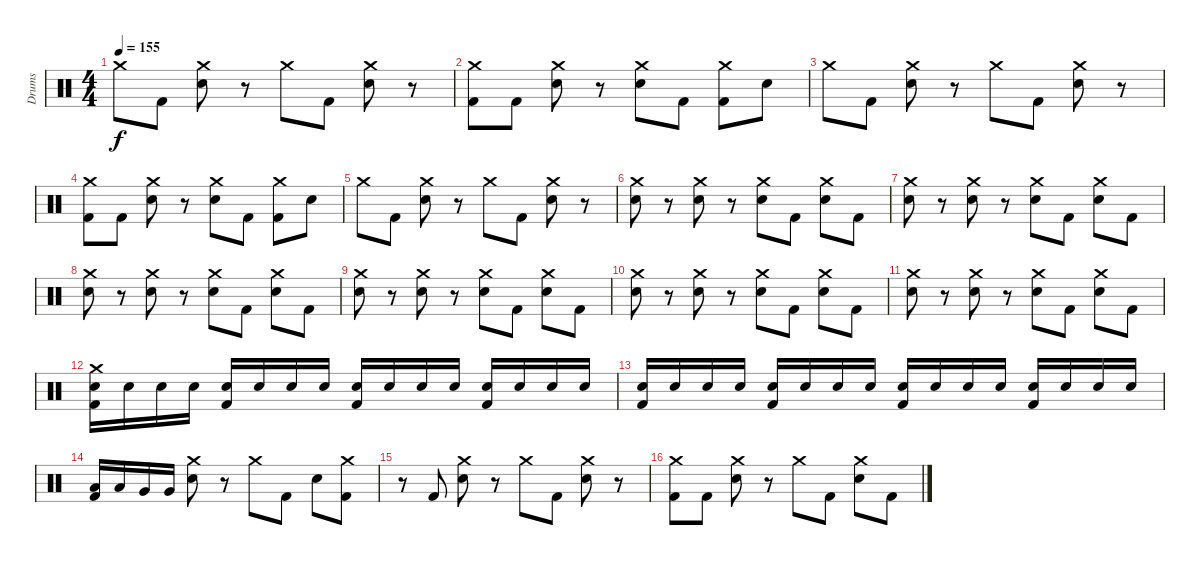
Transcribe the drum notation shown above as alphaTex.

\track ("Drums" "Drums") {instrument percussion}
\staff {score}
\articulation defaults
\ts (4 4)
\tempo 155
\clef neutral
\ks c "Crash medium (hit)".8{dy f} "Kick (hit) 2".8
("Crash medium (hit)" "Electric Snare (hit)").8 r.8 "Crash medium (hit)".8 "Kick (hit) 2".8 ("Crash medium (hit)" "Electric Snare (hit)").8 r.8 |
("Crash medium (hit)" "Kick (hit) 2").8 "Kick (hit) 2".8 ("Crash medium (hit)" "Electric Snare (hit)").8 r.8 ("Crash medium (hit)" "Electric Snare (hit)").8 "Kick (hit) 2".8 ("Crash medium (hit)" "Kick (hit) 2").8 "Electric Snare (hit)".8 |
"Crash medium (hit)".8 "Kick (hit) 2".8 ("Crash medium (hit)" "Electric Snare (hit)").8 r.8 "Crash medium (hit)".8 "Kick (hit) 2".8 ("Crash medium (hit)" "Electric Snare (hit)").8 r.8 |
("Crash medium (hit)" "Kick (hit) 2").8 "Kick (hit) 2".8 ("Crash medium (hit)" "Electric Snare (hit)").8 r.8 ("Crash medium (hit)" "Electric Snare (hit)").8 "Kick (hit) 2".8 ("Crash medium (hit)" "Kick (hit) 2").8 "Electric Snare (hit)".8 |
"Crash medium (hit)".8 "Kick (hit) 2".8 ("Crash medium (hit)" "Electric Snare (hit)").8 r.8 "Crash medium (hit)".8 "Kick (hit) 2".8 ("Crash medium (hit)" "Electric Snare (hit)").8 r.8 |
("Crash medium (hit)" "Electric Snare (hit)").8 r.8 ("Crash medium (hit)" "Electric Snare (hit)").8 r.8 ("Crash medium (hit)" "Electric Snare (hit)").8 "Kick (hit) 2".8 ("Crash medium (hit)" "Electric Snare (hit)").8 "Kick (hit) 2".8 |
("Crash medium (hit)" "Electric Snare (hit)").8 r.8 ("Crash medium (hit)" "Electric Snare (hit)").8 r.8 ("Crash medium (hit)" "Electric Snare (hit)").8 "Kick (hit) 2".8 ("Crash medium (hit)" "Electric Snare (hit)").8 "Kick (hit) 2".8 |
("Crash medium (hit)" "Electric Snare (hit)").8 r.8 ("Crash medium (hit)" "Electric Snare (hit)").8 r.8 ("Crash medium (hit)" "Electric Snare (hit)").8 "Kick (hit) 2".8 ("Crash medium (hit)" "Electric Snare (hit)").8 "Kick (hit) 2".8 |
("Crash medium (hit)" "Electric Snare (hit)").8 r.8 ("Crash medium (hit)" "Electric Snare (hit)").8 r.8 ("Crash medium (hit)" "Electric Snare (hit)").8 "Kick (hit) 2".8 ("Crash medium (hit)" "Electric Snare (hit)").8 "Kick (hit) 2".8 |
("Crash medium (hit)" "Electric Snare (hit)").8 r.8 ("Crash medium (hit)" "Electric Snare (hit)").8 r.8 ("Crash medium (hit)" "Electric Snare (hit)").8 "Kick (hit) 2".8 ("Crash medium (hit)" "Electric Snare (hit)").8 "Kick (hit) 2".8 |
("Crash medium (hit)" "Electric Snare (hit)").8 r.8 ("Crash medium (hit)" "Electric Snare (hit)").8 r.8 ("Crash medium (hit)" "Electric Snare (hit)").8 "Kick (hit) 2".8 ("Crash medium (hit)" "Electric Snare (hit)").8 "Kick (hit) 2".8 |
("Crash medium (hit)" "Electric Snare (hit)" "Kick (hit) 2").16 "Electric Snare (hit)".16 "Electric Snare (hit)".16 "Electric Snare (hit)".16 ("Electric Snare (hit)" "Kick (hit) 2").16 "Electric Snare (hit)".16 "Electric Snare (hit)".16 "Electric Snare (hit)".16 ("Electric Snare (hit)" "Kick (hit) 2").16 "Electric Snare (hit)".16 "Electric Snare (hit)".16 "Electric Snare (hit)".16 ("Electric Snare (hit)" "Kick (hit) 2").16 "Electric Snare (hit)".16 "Electric Snare (hit)".16 "Electric Snare (hit)".16 |
("Electric Snare (hit)" "Kick (hit) 2").16 "Electric Snare (hit)".16 "Electric Snare (hit)".16 "Electric Snare (hit)".16 ("Electric Snare (hit)" "Kick (hit) 2").16 "Electric Snare (hit)".16 "Electric Snare (hit)".16 "Electric Snare (hit)".16 ("Electric Snare (hit)" "Kick (hit) 2").16 "Electric Snare (hit)".16 "Electric Snare (hit)".16 "Electric Snare (hit)".16 ("Electric Snare (hit)" "Kick (hit) 2").16 "Electric Snare (hit)".16 "Electric Snare (hit)".16 "Electric Snare (hit)".16 |
("Low Tom (hit)" "Kick (hit) 2").16 "Low Tom (hit)".16 "Very Low Tom (hit)".16 "Very Low Tom (hit)".16 ("Crash medium (hit)" "Electric Snare (hit)").8 r.8 "Crash medium (hit)".8 "Kick (hit) 2".8 "Electric Snare (hit)".8 ("Crash medium (hit)" "Kick (hit) 2").8 |
r.8 "Kick (hit) 2".8 ("Crash medium (hit)" "Electric Snare (hit)").8 r.8 "Crash medium (hit)".8 "Kick (hit) 2".8 ("Crash medium (hit)" "Electric Snare (hit)").8 r.8 |
("Crash medium (hit)" "Kick (hit) 2").8 "Kick (hit) 2".8 ("Crash medium (hit)" "Electric Snare (hit)").8 r.8 "Crash medium (hit)".8 "Kick (hit) 2".8 ("Crash medium (hit)" "Electric Snare (hit)").8 "Kick (hit) 2".8
